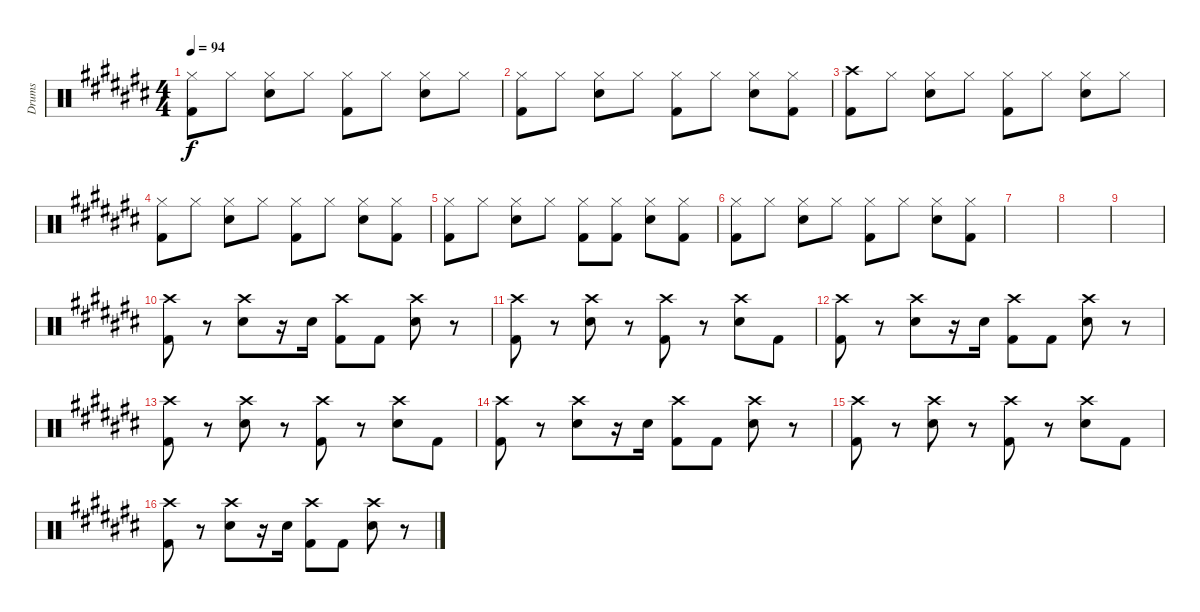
\track ("Drums" "Drums") {instrument percussion}
\staff {score}
\articulation defaults
\ts (4 4)
\tempo 94
\clef neutral
\ks c#
("Hi-Hat (closed)" "Kick (hit) 2").8{dy f} "Hi-Hat (closed)".8 ("Hi-Hat (closed)" "Snare (hit) 2").8 "Hi-Hat (closed)".8 ("Hi-Hat (closed)" "Kick (hit) 2").8 "Hi-Hat (closed)".8 ("Hi-Hat (closed)" "Snare (hit) 2").8 "Hi-Hat (closed)".8 |
("Hi-Hat (closed)" "Kick (hit) 2").8 "Hi-Hat (closed)".8 ("Hi-Hat (closed)" "Snare (hit) 2").8 "Hi-Hat (closed)".8 ("Hi-Hat (closed)" "Kick (hit) 2").8 "Hi-Hat (closed)".8 ("Hi-Hat (closed)" "Snare (hit) 2").8 ("Hi-Hat (closed)" "Kick (hit) 2").8 |
("Crash high (hit)" "Kick (hit) 2").8 "Hi-Hat (closed)".8 ("Hi-Hat (closed)" "Snare (hit) 2").8 "Hi-Hat (closed)".8 ("Hi-Hat (closed)" "Kick (hit) 2").8 "Hi-Hat (closed)".8 ("Hi-Hat (closed)" "Snare (hit) 2").8 "Hi-Hat (closed)".8 |
("Hi-Hat (closed)" "Kick (hit) 2").8 "Hi-Hat (closed)".8 ("Hi-Hat (closed)" "Snare (hit) 2").8 "Hi-Hat (closed)".8 ("Hi-Hat (closed)" "Kick (hit) 2").8 "Hi-Hat (closed)".8 ("Hi-Hat (closed)" "Snare (hit) 2").8 ("Hi-Hat (closed)" "Kick (hit) 2").8 |
("Hi-Hat (closed)" "Kick (hit) 2").8 "Hi-Hat (closed)".8 ("Hi-Hat (closed)" "Snare (hit) 2").8 "Hi-Hat (closed)".8 ("Hi-Hat (closed)" "Kick (hit) 2").8 ("Hi-Hat (closed)" "Kick (hit) 2").8 ("Hi-Hat (closed)" "Snare (hit) 2").8 ("Hi-Hat (closed)" "Kick (hit) 2").8 |
("Hi-Hat (closed)" "Kick (hit) 2").8 "Hi-Hat (closed)".8 ("Hi-Hat (closed)" "Snare (hit) 2").8 "Hi-Hat (closed)".8 ("Hi-Hat (closed)" "Kick (hit) 2").8 "Hi-Hat (closed)".8 ("Hi-Hat (closed)" "Snare (hit) 2").8 ("Hi-Hat (closed)" "Kick (hit) 2").8 |
|
|
|
("Crash high (hit)" "Kick (hit) 2").8 r.8 ("Crash high (hit)" "Snare (hit) 2").8 r.16 "Snare (hit) 2".16 ("Crash high (hit)" "Kick (hit) 2").8 "Kick (hit) 2".8 ("Crash high (hit)" "Snare (hit) 2").8 r.8 |
("Crash high (hit)" "Kick (hit) 2").8 r.8 ("Crash high (hit)" "Snare (hit) 2").8 r.8 ("Crash high (hit)" "Kick (hit) 2").8 r.8 ("Crash high (hit)" "Snare (hit) 2").8 "Kick (hit) 2".8 |
("Crash high (hit)" "Kick (hit) 2").8 r.8 ("Crash high (hit)" "Snare (hit) 2").8 r.16 "Snare (hit) 2".16 ("Crash high (hit)" "Kick (hit) 2").8 "Kick (hit) 2".8 ("Crash high (hit)" "Snare (hit) 2").8 r.8 |
("Crash high (hit)" "Kick (hit) 2").8 r.8 ("Crash high (hit)" "Snare (hit) 2").8 r.8 ("Crash high (hit)" "Kick (hit) 2").8 r.8 ("Crash high (hit)" "Snare (hit) 2").8 "Kick (hit) 2".8 |
("Crash high (hit)" "Kick (hit) 2").8 r.8 ("Crash high (hit)" "Snare (hit) 2").8 r.16 "Snare (hit) 2".16 ("Crash high (hit)" "Kick (hit) 2").8 "Kick (hit) 2".8 ("Crash high (hit)" "Snare (hit) 2").8 r.8 |
("Crash high (hit)" "Kick (hit) 2").8 r.8 ("Crash high (hit)" "Snare (hit) 2").8 r.8 ("Crash high (hit)" "Kick (hit) 2").8 r.8 ("Crash high (hit)" "Snare (hit) 2").8 "Kick (hit) 2".8 |
("Crash high (hit)" "Kick (hit) 2").8 r.8 ("Crash high (hit)" "Snare (hit) 2").8 r.16 "Snare (hit) 2".16 ("Crash high (hit)" "Kick (hit) 2").8 "Kick (hit) 2".8 ("Crash high (hit)" "Snare (hit) 2").8 r.8
